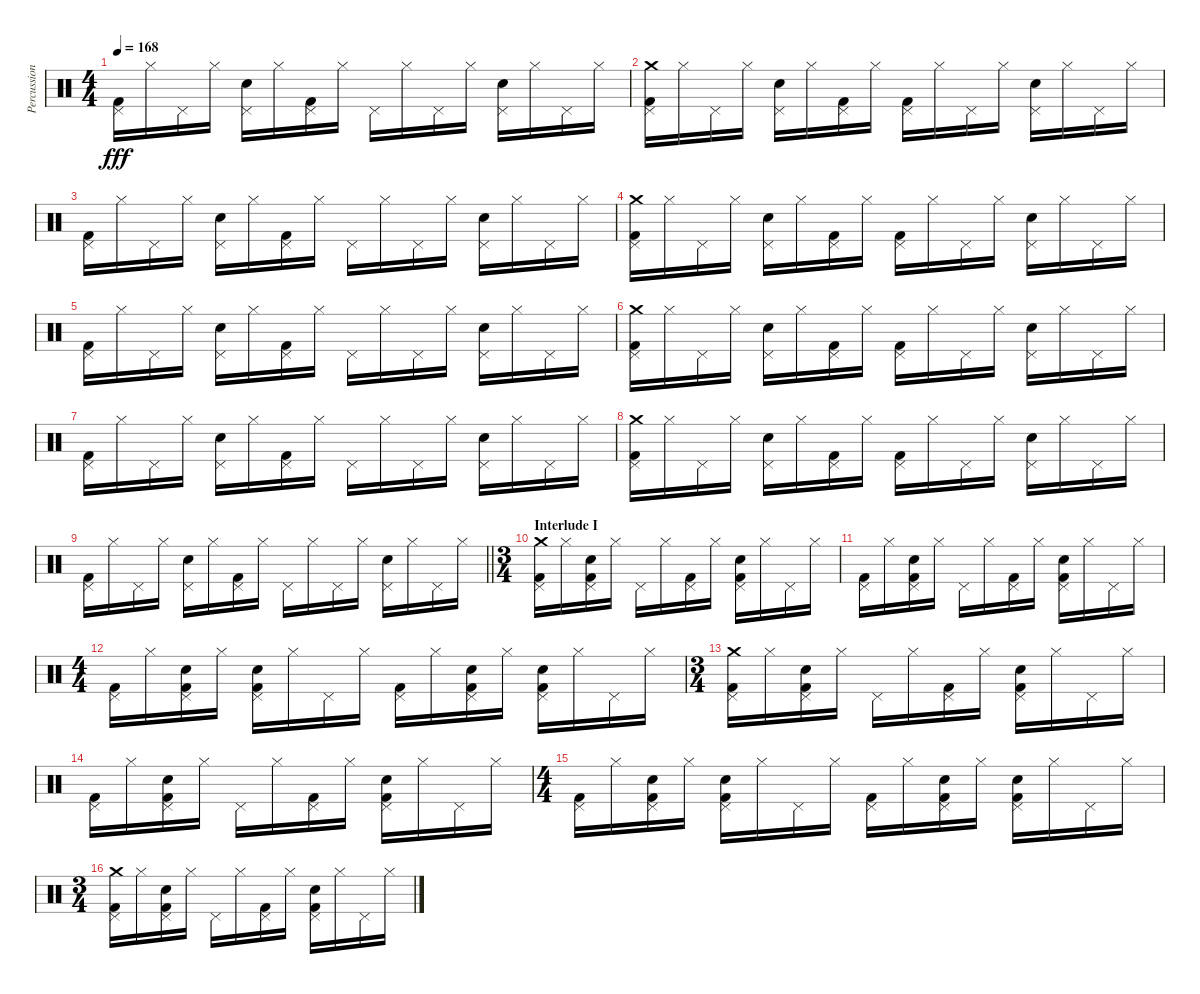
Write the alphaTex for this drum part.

\track ("Percussion" "Percussion") {instrument percussion}
\staff {score}
\articulation defaults
\ts (4 4)
\tempo 168
\clef neutral
\ks c
("Kick (hit) 2" "Pedal Hi-Hat (hit)").16{dy fff} "Hi-Hat (closed)".16 "Pedal Hi-Hat (hit)".16 "Hi-Hat (closed)".16 ("Pedal Hi-Hat (hit)" "Snare (hit) 2").16 "Hi-Hat (closed)".16 ("Kick (hit) 2" "Pedal Hi-Hat (hit)").16 "Hi-Hat (closed)".16 "Pedal Hi-Hat (hit)".16 "Hi-Hat (closed)".16 "Pedal Hi-Hat (hit)".16 "Hi-Hat (closed)".16 ("Pedal Hi-Hat (hit)" "Snare (hit) 2").16 "Hi-Hat (closed)".16 "Pedal Hi-Hat (hit)".16 "Hi-Hat (closed)".16 |
("Kick (hit) 2" "Crash medium (hit)" "Pedal Hi-Hat (hit)").16 "Hi-Hat (closed)".16 "Pedal Hi-Hat (hit)".16 "Hi-Hat (closed)".16 ("Pedal Hi-Hat (hit)" "Snare (hit) 2").16 "Hi-Hat (closed)".16 ("Kick (hit) 2" "Pedal Hi-Hat (hit)").16 "Hi-Hat (closed)".16 ("Kick (hit) 2" "Pedal Hi-Hat (hit)").16 "Hi-Hat (closed)".16 "Pedal Hi-Hat (hit)".16 "Hi-Hat (closed)".16 ("Pedal Hi-Hat (hit)" "Snare (hit) 2").16 "Hi-Hat (closed)".16 "Pedal Hi-Hat (hit)".16 "Hi-Hat (closed)".16 |
("Kick (hit) 2" "Pedal Hi-Hat (hit)").16 "Hi-Hat (closed)".16 "Pedal Hi-Hat (hit)".16 "Hi-Hat (closed)".16 ("Pedal Hi-Hat (hit)" "Snare (hit) 2").16 "Hi-Hat (closed)".16 ("Kick (hit) 2" "Pedal Hi-Hat (hit)").16 "Hi-Hat (closed)".16 "Pedal Hi-Hat (hit)".16 "Hi-Hat (closed)".16 "Pedal Hi-Hat (hit)".16 "Hi-Hat (closed)".16 ("Pedal Hi-Hat (hit)" "Snare (hit) 2").16 "Hi-Hat (closed)".16 "Pedal Hi-Hat (hit)".16 "Hi-Hat (closed)".16 |
("Kick (hit) 2" "Crash medium (hit)" "Pedal Hi-Hat (hit)").16 "Hi-Hat (closed)".16 "Pedal Hi-Hat (hit)".16 "Hi-Hat (closed)".16 ("Pedal Hi-Hat (hit)" "Snare (hit) 2").16 "Hi-Hat (closed)".16 ("Kick (hit) 2" "Pedal Hi-Hat (hit)").16 "Hi-Hat (closed)".16 ("Kick (hit) 2" "Pedal Hi-Hat (hit)").16 "Hi-Hat (closed)".16 "Pedal Hi-Hat (hit)".16 "Hi-Hat (closed)".16 ("Pedal Hi-Hat (hit)" "Snare (hit) 2").16 "Hi-Hat (closed)".16 "Pedal Hi-Hat (hit)".16 "Hi-Hat (closed)".16 |
("Kick (hit) 2" "Pedal Hi-Hat (hit)").16 "Hi-Hat (closed)".16 "Pedal Hi-Hat (hit)".16 "Hi-Hat (closed)".16 ("Pedal Hi-Hat (hit)" "Snare (hit) 2").16 "Hi-Hat (closed)".16 ("Kick (hit) 2" "Pedal Hi-Hat (hit)").16 "Hi-Hat (closed)".16 "Pedal Hi-Hat (hit)".16 "Hi-Hat (closed)".16 "Pedal Hi-Hat (hit)".16 "Hi-Hat (closed)".16 ("Pedal Hi-Hat (hit)" "Snare (hit) 2").16 "Hi-Hat (closed)".16 "Pedal Hi-Hat (hit)".16 "Hi-Hat (closed)".16 |
("Kick (hit) 2" "Crash medium (hit)" "Pedal Hi-Hat (hit)").16 "Hi-Hat (closed)".16 "Pedal Hi-Hat (hit)".16 "Hi-Hat (closed)".16 ("Pedal Hi-Hat (hit)" "Snare (hit) 2").16 "Hi-Hat (closed)".16 ("Kick (hit) 2" "Pedal Hi-Hat (hit)").16 "Hi-Hat (closed)".16 ("Kick (hit) 2" "Pedal Hi-Hat (hit)").16 "Hi-Hat (closed)".16 "Pedal Hi-Hat (hit)".16 "Hi-Hat (closed)".16 ("Pedal Hi-Hat (hit)" "Snare (hit) 2").16 "Hi-Hat (closed)".16 "Pedal Hi-Hat (hit)".16 "Hi-Hat (closed)".16 |
("Kick (hit) 2" "Pedal Hi-Hat (hit)").16 "Hi-Hat (closed)".16 "Pedal Hi-Hat (hit)".16 "Hi-Hat (closed)".16 ("Pedal Hi-Hat (hit)" "Snare (hit) 2").16 "Hi-Hat (closed)".16 ("Kick (hit) 2" "Pedal Hi-Hat (hit)").16 "Hi-Hat (closed)".16 "Pedal Hi-Hat (hit)".16 "Hi-Hat (closed)".16 "Pedal Hi-Hat (hit)".16 "Hi-Hat (closed)".16 ("Pedal Hi-Hat (hit)" "Snare (hit) 2").16 "Hi-Hat (closed)".16 "Pedal Hi-Hat (hit)".16 "Hi-Hat (closed)".16 |
("Kick (hit) 2" "Crash medium (hit)" "Pedal Hi-Hat (hit)").16 "Hi-Hat (closed)".16 "Pedal Hi-Hat (hit)".16 "Hi-Hat (closed)".16 ("Pedal Hi-Hat (hit)" "Snare (hit) 2").16 "Hi-Hat (closed)".16 ("Kick (hit) 2" "Pedal Hi-Hat (hit)").16 "Hi-Hat (closed)".16 ("Kick (hit) 2" "Pedal Hi-Hat (hit)").16 "Hi-Hat (closed)".16 "Pedal Hi-Hat (hit)".16 "Hi-Hat (closed)".16 ("Pedal Hi-Hat (hit)" "Snare (hit) 2").16 "Hi-Hat (closed)".16 "Pedal Hi-Hat (hit)".16 "Hi-Hat (closed)".16 |
\barLineRight lightlight
("Kick (hit) 2" "Pedal Hi-Hat (hit)").16 "Hi-Hat (closed)".16 "Pedal Hi-Hat (hit)".16 "Hi-Hat (closed)".16 ("Pedal Hi-Hat (hit)" "Snare (hit) 2").16 "Hi-Hat (closed)".16 ("Kick (hit) 2" "Pedal Hi-Hat (hit)").16 "Hi-Hat (closed)".16 "Pedal Hi-Hat (hit)".16 "Hi-Hat (closed)".16 "Pedal Hi-Hat (hit)".16 "Hi-Hat (closed)".16 ("Pedal Hi-Hat (hit)" "Snare (hit) 2").16 "Hi-Hat (closed)".16 "Pedal Hi-Hat (hit)".16 "Hi-Hat (closed)".16 |
\ts (3 4)
\section ("" "Interlude I")
("Kick (hit) 2" "Crash medium (hit)" "Pedal Hi-Hat (hit)").16 "Hi-Hat (closed)".16 ("Kick (hit) 2" "Pedal Hi-Hat (hit)" "Snare (hit) 2").16 "Hi-Hat (closed)".16 "Pedal Hi-Hat (hit)".16 "Hi-Hat (closed)".16 ("Kick (hit) 2" "Pedal Hi-Hat (hit)").16 "Hi-Hat (closed)".16 ("Kick (hit) 2" "Pedal Hi-Hat (hit)" "Snare (hit) 2").16 "Hi-Hat (closed)".16 "Pedal Hi-Hat (hit)".16 "Hi-Hat (closed)".16 |
("Kick (hit) 2" "Pedal Hi-Hat (hit)").16 "Hi-Hat (closed)".16 ("Kick (hit) 2" "Pedal Hi-Hat (hit)" "Snare (hit) 2").16 "Hi-Hat (closed)".16 "Pedal Hi-Hat (hit)".16 "Hi-Hat (closed)".16 ("Kick (hit) 2" "Pedal Hi-Hat (hit)").16 "Hi-Hat (closed)".16 ("Kick (hit) 2" "Pedal Hi-Hat (hit)" "Snare (hit) 2").16 "Hi-Hat (closed)".16 "Pedal Hi-Hat (hit)".16 "Hi-Hat (closed)".16 |
\ts (4 4)
("Kick (hit) 2" "Pedal Hi-Hat (hit)").16 "Hi-Hat (closed)".16 ("Kick (hit) 2" "Pedal Hi-Hat (hit)" "Snare (hit) 2").16 "Hi-Hat (closed)".16 ("Kick (hit) 2" "Pedal Hi-Hat (hit)" "Snare (hit) 2").16 "Hi-Hat (closed)".16 "Pedal Hi-Hat (hit)".16 "Hi-Hat (closed)".16 ("Kick (hit) 2" "Pedal Hi-Hat (hit)").16 "Hi-Hat (closed)".16 ("Kick (hit) 2" "Pedal Hi-Hat (hit)" "Snare (hit) 2").16 "Hi-Hat (closed)".16 ("Kick (hit) 2" "Pedal Hi-Hat (hit)" "Snare (hit) 2").16 "Hi-Hat (closed)".16 "Pedal Hi-Hat (hit)".16 "Hi-Hat (closed)".16 |
\ts (3 4)
("Kick (hit) 2" "Crash medium (hit)" "Pedal Hi-Hat (hit)").16 "Hi-Hat (closed)".16 ("Kick (hit) 2" "Pedal Hi-Hat (hit)" "Snare (hit) 2").16 "Hi-Hat (closed)".16 "Pedal Hi-Hat (hit)".16 "Hi-Hat (closed)".16 ("Kick (hit) 2" "Pedal Hi-Hat (hit)").16 "Hi-Hat (closed)".16 ("Kick (hit) 2" "Pedal Hi-Hat (hit)" "Snare (hit) 2").16 "Hi-Hat (closed)".16 "Pedal Hi-Hat (hit)".16 "Hi-Hat (closed)".16 |
("Kick (hit) 2" "Pedal Hi-Hat (hit)").16 "Hi-Hat (closed)".16 ("Kick (hit) 2" "Pedal Hi-Hat (hit)" "Snare (hit) 2").16 "Hi-Hat (closed)".16 "Pedal Hi-Hat (hit)".16 "Hi-Hat (closed)".16 ("Kick (hit) 2" "Pedal Hi-Hat (hit)").16 "Hi-Hat (closed)".16 ("Kick (hit) 2" "Pedal Hi-Hat (hit)" "Snare (hit) 2").16 "Hi-Hat (closed)".16 "Pedal Hi-Hat (hit)".16 "Hi-Hat (closed)".16 |
\ts (4 4)
("Kick (hit) 2" "Pedal Hi-Hat (hit)").16 "Hi-Hat (closed)".16 ("Kick (hit) 2" "Pedal Hi-Hat (hit)" "Snare (hit) 2").16 "Hi-Hat (closed)".16 ("Kick (hit) 2" "Pedal Hi-Hat (hit)" "Snare (hit) 2").16 "Hi-Hat (closed)".16 "Pedal Hi-Hat (hit)".16 "Hi-Hat (closed)".16 ("Kick (hit) 2" "Pedal Hi-Hat (hit)").16 "Hi-Hat (closed)".16 ("Kick (hit) 2" "Pedal Hi-Hat (hit)" "Snare (hit) 2").16 "Hi-Hat (closed)".16 ("Kick (hit) 2" "Pedal Hi-Hat (hit)" "Snare (hit) 2").16 "Hi-Hat (closed)".16 "Pedal Hi-Hat (hit)".16 "Hi-Hat (closed)".16 |
\ts (3 4)
("Kick (hit) 2" "Crash medium (hit)" "Pedal Hi-Hat (hit)").16 "Hi-Hat (closed)".16 ("Kick (hit) 2" "Pedal Hi-Hat (hit)" "Snare (hit) 2").16 "Hi-Hat (closed)".16 "Pedal Hi-Hat (hit)".16 "Hi-Hat (closed)".16 ("Kick (hit) 2" "Pedal Hi-Hat (hit)").16 "Hi-Hat (closed)".16 ("Kick (hit) 2" "Pedal Hi-Hat (hit)" "Snare (hit) 2").16 "Hi-Hat (closed)".16 "Pedal Hi-Hat (hit)".16 "Hi-Hat (closed)".16
